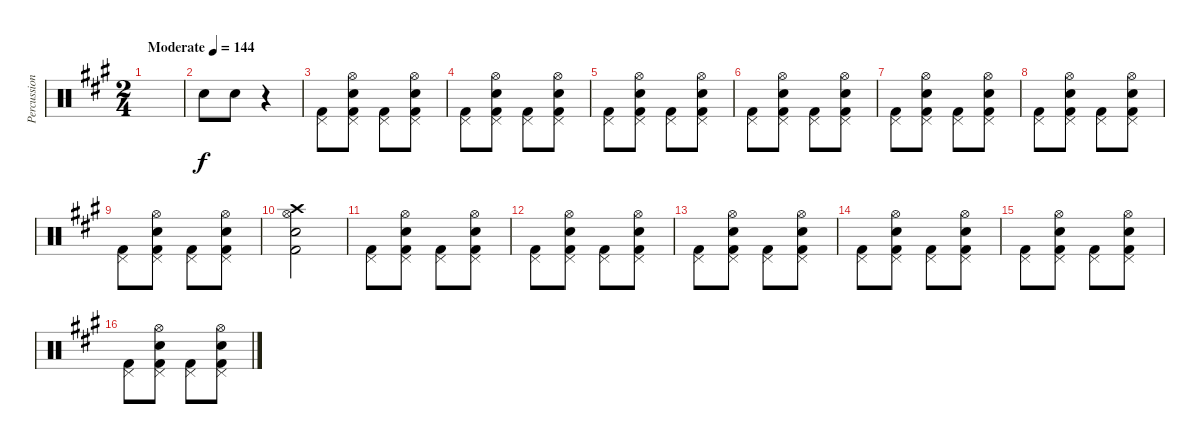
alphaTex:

\track ("Percussion" "Percussion") {instrument percussion}
\staff {score}
\articulation defaults
\ts (2 4)
\tempo (144 "Moderate")
\clef neutral
\ks a
|
"Snare (hit) 2".8 "Snare (hit) 2".8 r.4 |
("Pedal Hi-Hat (hit)" "Kick (hit) 2").8 ("Pedal Hi-Hat (hit)" "Hi-Hat (open)" "Snare (hit) 2" "Kick (hit) 2").8 ("Pedal Hi-Hat (hit)" "Kick (hit) 2").8 ("Pedal Hi-Hat (hit)" "Hi-Hat (open)" "Snare (hit) 2" "Kick (hit) 2").8 |
("Pedal Hi-Hat (hit)" "Kick (hit) 2").8 ("Pedal Hi-Hat (hit)" "Hi-Hat (open)" "Snare (hit) 2" "Kick (hit) 2").8 ("Pedal Hi-Hat (hit)" "Kick (hit) 2").8 ("Pedal Hi-Hat (hit)" "Hi-Hat (open)" "Snare (hit) 2" "Kick (hit) 2").8 |
("Pedal Hi-Hat (hit)" "Kick (hit) 2").8 ("Pedal Hi-Hat (hit)" "Hi-Hat (open)" "Snare (hit) 2" "Kick (hit) 2").8 ("Pedal Hi-Hat (hit)" "Kick (hit) 2").8 ("Pedal Hi-Hat (hit)" "Hi-Hat (open)" "Snare (hit) 2" "Kick (hit) 2").8 |
("Pedal Hi-Hat (hit)" "Kick (hit) 2").8 ("Pedal Hi-Hat (hit)" "Hi-Hat (open)" "Snare (hit) 2" "Kick (hit) 2").8 ("Pedal Hi-Hat (hit)" "Kick (hit) 2").8 ("Pedal Hi-Hat (hit)" "Hi-Hat (open)" "Snare (hit) 2" "Kick (hit) 2").8 |
("Pedal Hi-Hat (hit)" "Kick (hit) 2").8 ("Pedal Hi-Hat (hit)" "Hi-Hat (open)" "Snare (hit) 2" "Kick (hit) 2").8 ("Pedal Hi-Hat (hit)" "Kick (hit) 2").8 ("Pedal Hi-Hat (hit)" "Hi-Hat (open)" "Snare (hit) 2" "Kick (hit) 2").8 |
("Pedal Hi-Hat (hit)" "Kick (hit) 2").8 ("Pedal Hi-Hat (hit)" "Hi-Hat (open)" "Snare (hit) 2" "Kick (hit) 2").8 ("Pedal Hi-Hat (hit)" "Kick (hit) 2").8 ("Pedal Hi-Hat (hit)" "Hi-Hat (open)" "Snare (hit) 2" "Kick (hit) 2").8 |
("Pedal Hi-Hat (hit)" "Kick (hit) 2").8 ("Pedal Hi-Hat (hit)" "Hi-Hat (open)" "Snare (hit) 2" "Kick (hit) 2").8 ("Pedal Hi-Hat (hit)" "Kick (hit) 2").8 ("Pedal Hi-Hat (hit)" "Hi-Hat (open)" "Snare (hit) 2" "Kick (hit) 2").8 |
("Crash high (hit)" "Hi-Hat (open)" "Snare (hit) 2" "Kick (hit) 2").2 |
("Pedal Hi-Hat (hit)" "Kick (hit) 2").8 ("Pedal Hi-Hat (hit)" "Hi-Hat (open)" "Snare (hit) 2" "Kick (hit) 2").8 ("Pedal Hi-Hat (hit)" "Kick (hit) 2").8 ("Pedal Hi-Hat (hit)" "Hi-Hat (open)" "Snare (hit) 2" "Kick (hit) 2").8 |
("Pedal Hi-Hat (hit)" "Kick (hit) 2").8 ("Pedal Hi-Hat (hit)" "Hi-Hat (open)" "Snare (hit) 2" "Kick (hit) 2").8 ("Pedal Hi-Hat (hit)" "Kick (hit) 2").8 ("Pedal Hi-Hat (hit)" "Hi-Hat (open)" "Snare (hit) 2" "Kick (hit) 2").8 |
("Pedal Hi-Hat (hit)" "Kick (hit) 2").8 ("Pedal Hi-Hat (hit)" "Hi-Hat (open)" "Snare (hit) 2" "Kick (hit) 2").8 ("Pedal Hi-Hat (hit)" "Kick (hit) 2").8 ("Pedal Hi-Hat (hit)" "Hi-Hat (open)" "Snare (hit) 2" "Kick (hit) 2").8 |
("Pedal Hi-Hat (hit)" "Kick (hit) 2").8 ("Pedal Hi-Hat (hit)" "Hi-Hat (open)" "Snare (hit) 2" "Kick (hit) 2").8 ("Pedal Hi-Hat (hit)" "Kick (hit) 2").8 ("Pedal Hi-Hat (hit)" "Hi-Hat (open)" "Snare (hit) 2" "Kick (hit) 2").8 |
("Pedal Hi-Hat (hit)" "Kick (hit) 2").8 ("Pedal Hi-Hat (hit)" "Hi-Hat (open)" "Snare (hit) 2" "Kick (hit) 2").8 ("Pedal Hi-Hat (hit)" "Kick (hit) 2").8 ("Pedal Hi-Hat (hit)" "Hi-Hat (open)" "Snare (hit) 2" "Kick (hit) 2").8 |
("Pedal Hi-Hat (hit)" "Kick (hit) 2").8 ("Pedal Hi-Hat (hit)" "Hi-Hat (open)" "Snare (hit) 2" "Kick (hit) 2").8 ("Pedal Hi-Hat (hit)" "Kick (hit) 2").8 ("Pedal Hi-Hat (hit)" "Hi-Hat (open)" "Snare (hit) 2" "Kick (hit) 2").8
